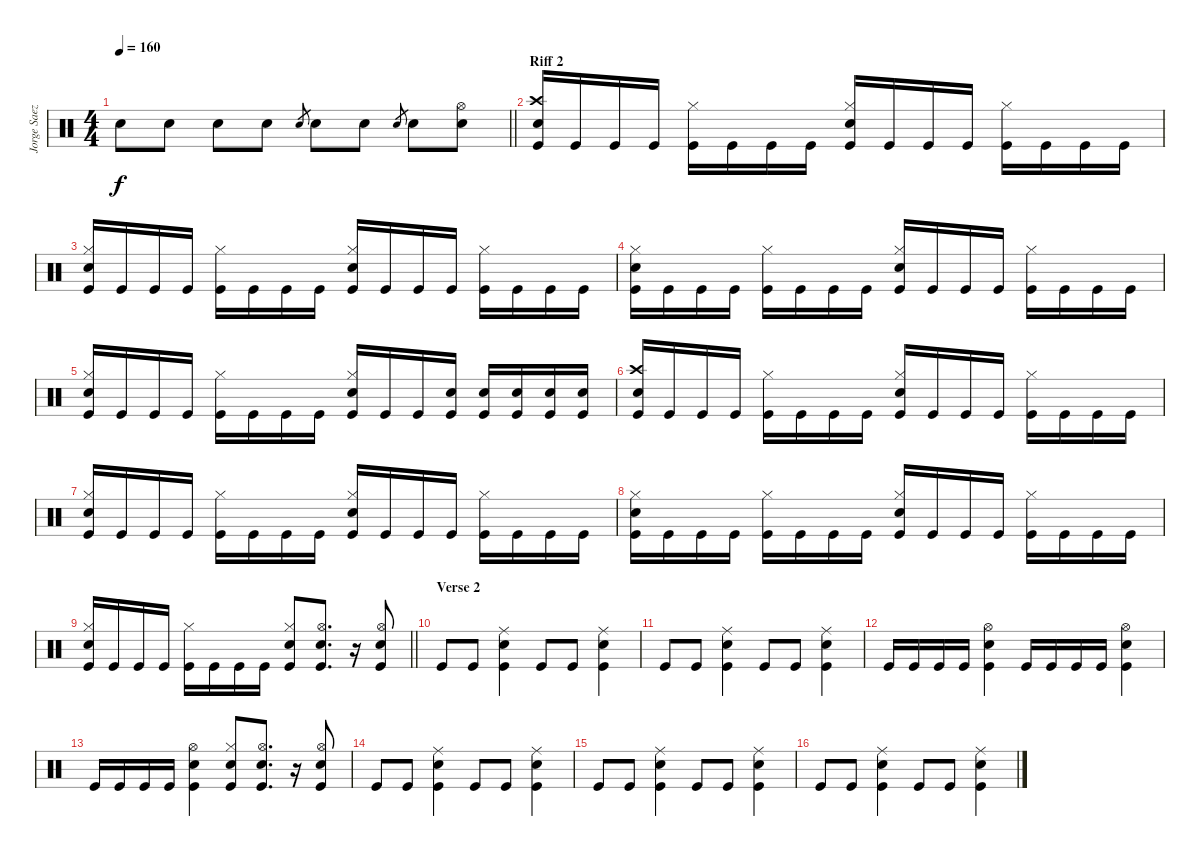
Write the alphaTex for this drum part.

\track ("Jorge Saez" "Jorge Saez") {instrument percussion}
\staff {score}
\articulation defaults
\ts (4 4)
\tempo 160
\clef neutral
\barLineRight lightlight
\ks c "Electric Snare (hit)".8{dy f} "Electric Snare (hit)".8 "Electric Snare (hit)".8 "Electric Snare (hit)".8 "Electric Snare (hit)".8{gr} "Electric Snare (hit)".8 "Electric Snare (hit)".8 "Electric Snare (hit)".8{gr} "Electric Snare (hit)".8
("Hi-Hat (open)" "Electric Snare (hit)").8 |
\section ("" "Riff 2")
("Crash high (hit)" "Electric Snare (hit)" "Kick (hit)").16 "Kick (hit)".16 "Kick (hit)".16 "Kick (hit)".16 ("Hi-Hat (closed)" "Kick (hit)").16 "Kick (hit)".16 "Kick (hit)".16 "Kick (hit)".16 ("Hi-Hat (closed)" "Snare (hit) 2" "Kick (hit)").16 "Kick (hit)".16 "Kick (hit)".16 "Kick (hit)".16 ("Hi-Hat (closed)" "Kick (hit)").16 "Kick (hit)".16 "Kick (hit)".16 "Kick (hit)".16 |
("Hi-Hat (closed)" "Snare (hit) 2" "Kick (hit)").16 "Kick (hit)".16 "Kick (hit)".16 "Kick (hit)".16 ("Hi-Hat (closed)" "Kick (hit)").16 "Kick (hit)".16 "Kick (hit)".16 "Kick (hit)".16 ("Hi-Hat (closed)" "Snare (hit) 2" "Kick (hit)").16 "Kick (hit)".16 "Kick (hit)".16 "Kick (hit)".16 ("Hi-Hat (closed)" "Kick (hit)").16 "Kick (hit)".16 "Kick (hit)".16 "Kick (hit)".16 |
("Hi-Hat (closed)" "Electric Snare (hit)" "Kick (hit)").16 "Kick (hit)".16 "Kick (hit)".16 "Kick (hit)".16 ("Hi-Hat (closed)" "Kick (hit)").16 "Kick (hit)".16 "Kick (hit)".16 "Kick (hit)".16 ("Hi-Hat (closed)" "Snare (hit) 2" "Kick (hit)").16 "Kick (hit)".16 "Kick (hit)".16 "Kick (hit)".16 ("Hi-Hat (closed)" "Kick (hit)").16 "Kick (hit)".16 "Kick (hit)".16 "Kick (hit)".16 |
("Hi-Hat (closed)" "Snare (hit) 2" "Kick (hit)").16 "Kick (hit)".16 "Kick (hit)".16 "Kick (hit)".16 ("Hi-Hat (closed)" "Kick (hit)").16 "Kick (hit)".16 "Kick (hit)".16 "Kick (hit)".16 ("Hi-Hat (closed)" "Snare (hit) 2" "Kick (hit)").16 "Kick (hit)".16 "Kick (hit)".16 ("Electric Snare (hit)" "Kick (hit)").16 ("Electric Snare (hit)" "Kick (hit)").16 ("Electric Snare (hit)" "Kick (hit)").16 ("Electric Snare (hit)" "Kick (hit)").16 ("Electric Snare (hit)" "Kick (hit)").16 |
("Crash high (hit)" "Electric Snare (hit)" "Kick (hit)").16 "Kick (hit)".16 "Kick (hit)".16 "Kick (hit)".16 ("Hi-Hat (closed)" "Kick (hit)").16 "Kick (hit)".16 "Kick (hit)".16 "Kick (hit)".16 ("Hi-Hat (closed)" "Snare (hit) 2" "Kick (hit)").16 "Kick (hit)".16 "Kick (hit)".16 "Kick (hit)".16 ("Hi-Hat (closed)" "Kick (hit)").16 "Kick (hit)".16 "Kick (hit)".16 "Kick (hit)".16 |
("Hi-Hat (closed)" "Snare (hit) 2" "Kick (hit)").16 "Kick (hit)".16 "Kick (hit)".16 "Kick (hit)".16 ("Hi-Hat (closed)" "Kick (hit)").16 "Kick (hit)".16 "Kick (hit)".16 "Kick (hit)".16 ("Hi-Hat (closed)" "Snare (hit) 2" "Kick (hit)").16 "Kick (hit)".16 "Kick (hit)".16 "Kick (hit)".16 ("Hi-Hat (closed)" "Kick (hit)").16 "Kick (hit)".16 "Kick (hit)".16 "Kick (hit)".16 |
("Hi-Hat (closed)" "Electric Snare (hit)" "Kick (hit)").16 "Kick (hit)".16 "Kick (hit)".16 "Kick (hit)".16 ("Hi-Hat (closed)" "Kick (hit)").16 "Kick (hit)".16 "Kick (hit)".16 "Kick (hit)".16 ("Hi-Hat (closed)" "Snare (hit) 2" "Kick (hit)").16 "Kick (hit)".16 "Kick (hit)".16 "Kick (hit)".16 ("Hi-Hat (closed)" "Kick (hit)").16 "Kick (hit)".16 "Kick (hit)".16 "Kick (hit)".16 |
\barLineRight lightlight
("Hi-Hat (closed)" "Snare (hit) 2" "Kick (hit)").16 "Kick (hit)".16 "Kick (hit)".16 "Kick (hit)".16 ("Hi-Hat (closed)" "Kick (hit)").16 "Kick (hit)".16 "Kick (hit)".16 "Kick (hit)".16 ("Hi-Hat (closed)" "Snare (hit) 2" "Kick (hit)").8 ("Hi-Hat (open)" "Electric Snare (hit)" "Kick (hit)").8{d} r.16 ("Hi-Hat (open)" "Electric Snare (hit)" "Kick (hit)").8 |
\section ("" "Verse 2")
"Kick (hit)".8 "Kick (hit)".8 ("Ride (middle)" "Snare (hit) 2" "Kick (hit)").4 "Kick (hit)".8 "Kick (hit)".8 ("Ride (middle)" "Snare (hit) 2" "Kick (hit)").4 |
"Kick (hit)".8 "Kick (hit)".8 ("Ride (middle)" "Snare (hit) 2" "Kick (hit)").4 "Kick (hit)".8 "Kick (hit)".8 ("Ride (middle)" "Snare (hit) 2" "Kick (hit)").4 |
"Kick (hit)".16 "Kick (hit)".16 "Kick (hit)".16 "Kick (hit)".16 ("Hi-Hat (open)" "Snare (hit) 2" "Kick (hit)").4 "Kick (hit)".16 "Kick (hit)".16 "Kick (hit)".16 "Kick (hit)".16 ("Hi-Hat (open)" "Snare (hit) 2" "Kick (hit)").4 |
"Kick (hit)".16 "Kick (hit)".16 "Kick (hit)".16 "Kick (hit)".16 ("Hi-Hat (open)" "Snare (hit) 2" "Kick (hit)").4 ("Hi-Hat (closed)" "Snare (hit) 2" "Kick (hit)").8 ("Hi-Hat (open)" "Electric Snare (hit)" "Kick (hit)").8{d} r.16 ("Hi-Hat (open)" "Electric Snare (hit)" "Kick (hit)").8 |
"Kick (hit)".8 "Kick (hit)".8 ("Ride (middle)" "Snare (hit) 2" "Kick (hit)").4 "Kick (hit)".8 "Kick (hit)".8 ("Ride (middle)" "Snare (hit) 2" "Kick (hit)").4 |
"Kick (hit)".8 "Kick (hit)".8 ("Ride (middle)" "Snare (hit) 2" "Kick (hit)").4 "Kick (hit)".8 "Kick (hit)".8 ("Ride (middle)" "Snare (hit) 2" "Kick (hit)").4 |
"Kick (hit)".8 "Kick (hit)".8 ("Ride (middle)" "Snare (hit) 2" "Kick (hit)").4 "Kick (hit)".8 "Kick (hit)".8 ("Ride (middle)" "Snare (hit) 2" "Kick (hit)").4
